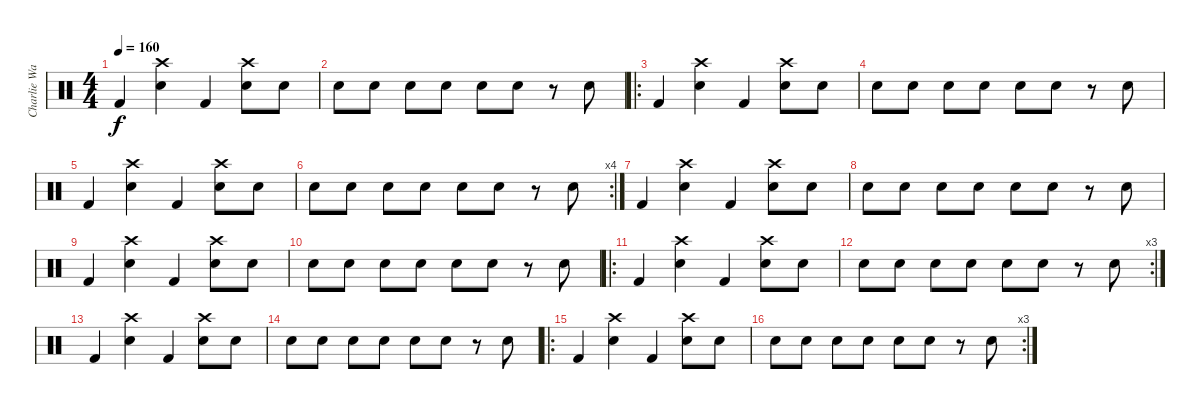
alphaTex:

\track ("Charlie Watts" "Charlie Wa") {instrument percussion}
\staff {score}
\articulation defaults
\ts (4 4)
\tempo 160
\clef neutral
\ks c "Kick (hit) 2".4{dy f}
("Snare (hit) 2" "Crash high (hit)").4 "Kick (hit) 2".4 ("Snare (hit) 2" "Crash high (hit)").8 "Snare (hit) 2".8 |
"Snare (hit) 2".8 "Snare (hit) 2".8 "Snare (hit) 2".8 "Snare (hit) 2".8 "Snare (hit) 2".8 "Snare (hit) 2".8 r.8 "Snare (hit) 2".8 |
\ro "Kick (hit) 2".4
("Snare (hit) 2" "Crash high (hit)").4 "Kick (hit) 2".4 ("Snare (hit) 2" "Crash high (hit)").8 "Snare (hit) 2".8 |
"Snare (hit) 2".8 "Snare (hit) 2".8 "Snare (hit) 2".8 "Snare (hit) 2".8 "Snare (hit) 2".8 "Snare (hit) 2".8 r.8 "Snare (hit) 2".8 |
"Kick (hit) 2".4 ("Snare (hit) 2" "Crash high (hit)").4 "Kick (hit) 2".4 ("Snare (hit) 2" "Crash high (hit)").8 "Snare (hit) 2".8 |
\rc 4 "Snare (hit) 2".8 "Snare (hit) 2".8 "Snare (hit) 2".8 "Snare (hit) 2".8 "Snare (hit) 2".8 "Snare (hit) 2".8
r.8 "Snare (hit) 2".8 |
"Kick (hit) 2".4 ("Snare (hit) 2" "Crash high (hit)").4 "Kick (hit) 2".4 ("Snare (hit) 2" "Crash high (hit)").8 "Snare (hit) 2".8 |
"Snare (hit) 2".8 "Snare (hit) 2".8 "Snare (hit) 2".8 "Snare (hit) 2".8 "Snare (hit) 2".8 "Snare (hit) 2".8 r.8 "Snare (hit) 2".8 |
"Kick (hit) 2".4 ("Snare (hit) 2" "Crash high (hit)").4 "Kick (hit) 2".4 ("Snare (hit) 2" "Crash high (hit)").8 "Snare (hit) 2".8 |
"Snare (hit) 2".8 "Snare (hit) 2".8 "Snare (hit) 2".8 "Snare (hit) 2".8 "Snare (hit) 2".8 "Snare (hit) 2".8 r.8 "Snare (hit) 2".8 |
\ro "Kick (hit) 2".4
("Snare (hit) 2" "Crash high (hit)").4 "Kick (hit) 2".4 ("Snare (hit) 2" "Crash high (hit)").8 "Snare (hit) 2".8 |
\rc 3 "Snare (hit) 2".8 "Snare (hit) 2".8 "Snare (hit) 2".8 "Snare (hit) 2".8 "Snare (hit) 2".8 "Snare (hit) 2".8
r.8 "Snare (hit) 2".8 |
"Kick (hit) 2".4 ("Snare (hit) 2" "Crash high (hit)").4 "Kick (hit) 2".4 ("Snare (hit) 2" "Crash high (hit)").8 "Snare (hit) 2".8 |
"Snare (hit) 2".8 "Snare (hit) 2".8 "Snare (hit) 2".8 "Snare (hit) 2".8 "Snare (hit) 2".8 "Snare (hit) 2".8 r.8 "Snare (hit) 2".8 |
\ro "Kick (hit) 2".4
("Snare (hit) 2" "Crash high (hit)").4 "Kick (hit) 2".4 ("Snare (hit) 2" "Crash high (hit)").8 "Snare (hit) 2".8 |
\rc 3 "Snare (hit) 2".8 "Snare (hit) 2".8 "Snare (hit) 2".8 "Snare (hit) 2".8 "Snare (hit) 2".8 "Snare (hit) 2".8
r.8 "Snare (hit) 2".8
